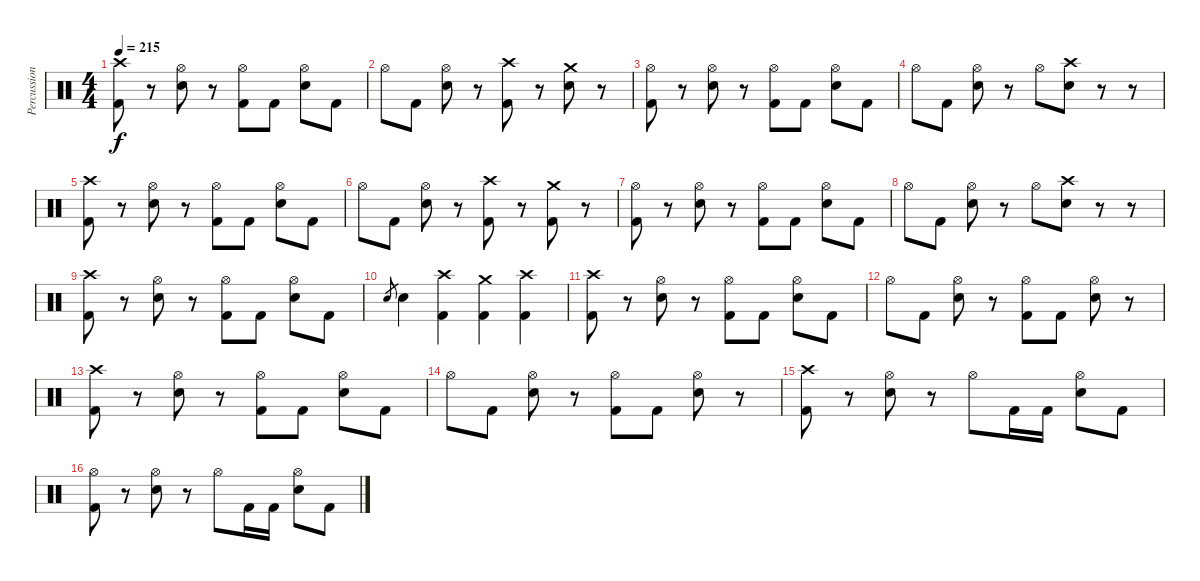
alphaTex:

\track ("Percussion" "Percussion") {instrument percussion}
\staff {score}
\articulation defaults
\ts (4 4)
\tempo 215
\clef neutral
\ks c
("Crash high (hit)" "Kick (hit) 2").8{dy f} r.8 ("Hi-Hat (open)" "Snare (hit) 2").8 r.8 ("Hi-Hat (open)" "Kick (hit) 2").8 "Kick (hit) 2".8 ("Hi-Hat (open)" "Snare (hit) 2").8 "Kick (hit) 2".8 |
"Hi-Hat (open)".8 "Kick (hit) 2".8 ("Hi-Hat (open)" "Snare (hit) 2").8 r.8 ("Crash high (hit)" "Kick (hit) 2").8 r.8 ("Crash medium (hit)" "Snare (hit) 2").8 r.8 |
("Hi-Hat (open)" "Kick (hit) 2").8 r.8 ("Hi-Hat (open)" "Snare (hit) 2").8 r.8 ("Hi-Hat (open)" "Kick (hit) 2").8 "Kick (hit) 2".8 ("Hi-Hat (open)" "Snare (hit) 2").8 "Kick (hit) 2".8 |
"Hi-Hat (open)".8 "Kick (hit) 2".8 ("Hi-Hat (open)" "Snare (hit) 2").8 r.8 "Hi-Hat (open)".8 ("Crash high (hit)" "Snare (hit) 2").8 r.8 r.8 |
("Crash high (hit)" "Kick (hit) 2").8 r.8 ("Hi-Hat (open)" "Snare (hit) 2").8 r.8 ("Hi-Hat (open)" "Kick (hit) 2").8 "Kick (hit) 2".8 ("Hi-Hat (open)" "Snare (hit) 2").8 "Kick (hit) 2".8 |
"Hi-Hat (open)".8 "Kick (hit) 2".8 ("Hi-Hat (open)" "Snare (hit) 2").8 r.8 ("Crash high (hit)" "Kick (hit) 2").8 r.8 ("Crash medium (hit)" "Kick (hit) 2").8 r.8 |
("Hi-Hat (open)" "Kick (hit) 2").8 r.8 ("Hi-Hat (open)" "Snare (hit) 2").8 r.8 ("Hi-Hat (open)" "Kick (hit) 2").8 "Kick (hit) 2".8 ("Hi-Hat (open)" "Snare (hit) 2").8 "Kick (hit) 2".8 |
"Hi-Hat (open)".8 "Kick (hit) 2".8 ("Hi-Hat (open)" "Snare (hit) 2").8 r.8 "Hi-Hat (open)".8 ("Crash high (hit)" "Snare (hit) 2").8 r.8 r.8 |
("Crash high (hit)" "Kick (hit) 2").8 r.8 ("Hi-Hat (open)" "Snare (hit) 2").8 r.8 ("Hi-Hat (open)" "Kick (hit) 2").8 "Kick (hit) 2".8 ("Hi-Hat (open)" "Snare (hit) 2").8 "Kick (hit) 2".8 |
"Snare (hit) 2".8{gr} "Snare (hit) 2".4 ("Crash high (hit)" "Kick (hit) 2").4 ("Crash medium (hit)" "Kick (hit) 2").4 ("Crash high (hit)" "Kick (hit) 2").4 |
("Crash high (hit)" "Kick (hit) 2").8 r.8 ("Hi-Hat (open)" "Snare (hit) 2").8 r.8 ("Hi-Hat (open)" "Kick (hit) 2").8 "Kick (hit) 2".8 ("Hi-Hat (open)" "Snare (hit) 2").8 "Kick (hit) 2".8 |
"Hi-Hat (open)".8 "Kick (hit) 2".8 ("Hi-Hat (open)" "Snare (hit) 2").8 r.8 ("Hi-Hat (open)" "Kick (hit) 2").8 "Kick (hit) 2".8 ("Hi-Hat (open)" "Snare (hit) 2").8 r.8 |
("Crash high (hit)" "Kick (hit) 2").8 r.8 ("Hi-Hat (open)" "Snare (hit) 2").8 r.8 ("Hi-Hat (open)" "Kick (hit) 2").8 "Kick (hit) 2".8 ("Hi-Hat (open)" "Snare (hit) 2").8 "Kick (hit) 2".8 |
"Hi-Hat (open)".8 "Kick (hit) 2".8 ("Hi-Hat (open)" "Snare (hit) 2").8 r.8 ("Hi-Hat (open)" "Kick (hit) 2").8 "Kick (hit) 2".8 ("Hi-Hat (open)" "Snare (hit) 2").8 r.8 |
("Crash high (hit)" "Kick (hit) 2").8 r.8 ("Hi-Hat (open)" "Snare (hit) 2").8 r.8 "Hi-Hat (open)".8 "Kick (hit) 2".16 "Kick (hit) 2".16 ("Hi-Hat (open)" "Snare (hit) 2").8 "Kick (hit) 2".8 |
("Hi-Hat (open)" "Kick (hit) 2").8 r.8 ("Hi-Hat (open)" "Snare (hit) 2").8 r.8 "Hi-Hat (open)".8 "Kick (hit) 2".16 "Kick (hit) 2".16 ("Hi-Hat (open)" "Snare (hit) 2").8 "Kick (hit) 2".8
